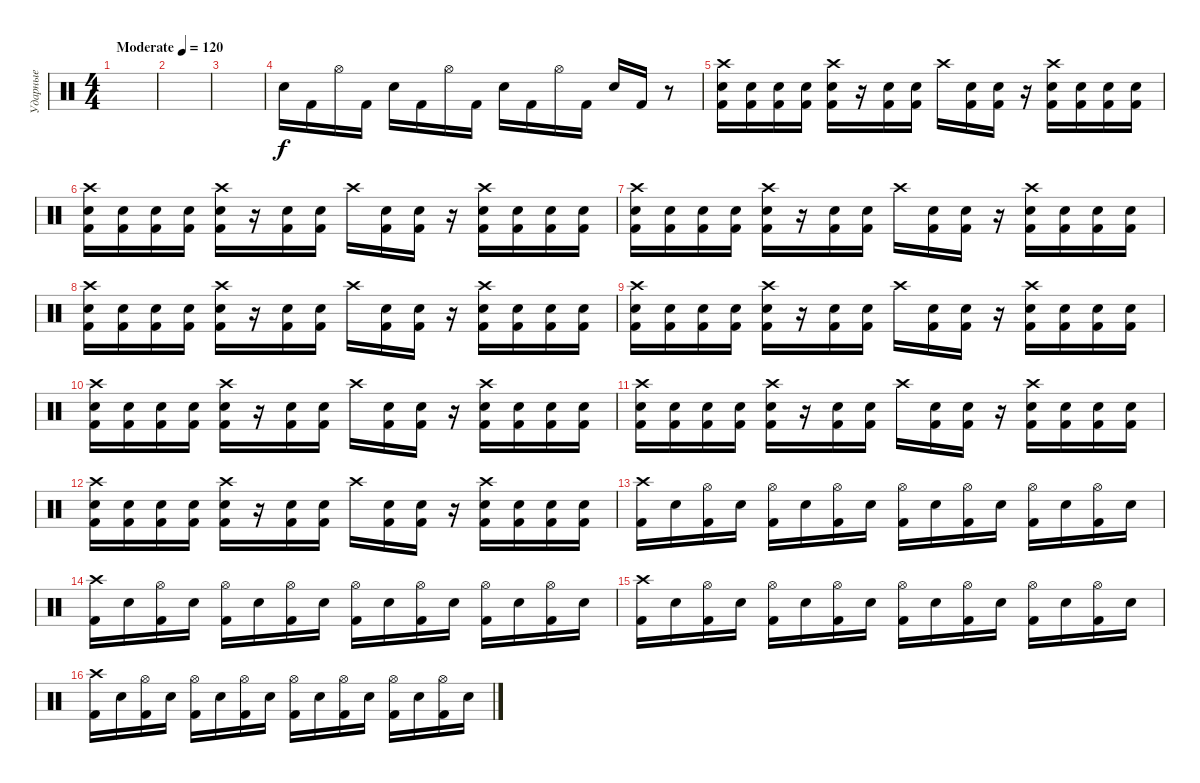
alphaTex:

\track ("Ударные" "Ударные") {instrument percussion}
\staff {score}
\articulation defaults
\ts (4 4)
\tempo (120 "Moderate")
\clef neutral
\ks c
|
|
|
"Snare (hit) 2".16 "Kick (hit) 2".16 "Hi-Hat (open)".16 "Kick (hit) 2".16 "Snare (hit) 2".16 "Kick (hit) 2".16 "Hi-Hat (open)".16 "Kick (hit) 2".16 "Snare (hit) 2".16 "Kick (hit) 2".16 "Hi-Hat (open)".16 "Kick (hit) 2".16 "Snare (hit) 2".16 "Kick (hit) 2".16 r.8 |
("Electric Snare (hit)" "Kick (hit) 2" "Crash high (hit)").16 ("Electric Snare (hit)" "Kick (hit) 2").16 ("Electric Snare (hit)" "Kick (hit) 2").16 ("Electric Snare (hit)" "Kick (hit) 2").16 ("Electric Snare (hit)" "Kick (hit) 2" "Crash high (hit)").16 r.16 ("Electric Snare (hit)" "Kick (hit) 2").16 ("Electric Snare (hit)" "Kick (hit) 2").16 "Crash high (hit)".16 ("Electric Snare (hit)" "Kick (hit) 2").16 ("Electric Snare (hit)" "Kick (hit) 2").16 r.16 ("Electric Snare (hit)" "Kick (hit) 2" "Crash high (hit)").16 ("Electric Snare (hit)" "Kick (hit) 2").16 ("Electric Snare (hit)" "Kick (hit) 2").16 ("Electric Snare (hit)" "Kick (hit) 2").16 |
("Electric Snare (hit)" "Kick (hit) 2" "Crash high (hit)").16 ("Electric Snare (hit)" "Kick (hit) 2").16 ("Electric Snare (hit)" "Kick (hit) 2").16 ("Electric Snare (hit)" "Kick (hit) 2").16 ("Electric Snare (hit)" "Kick (hit) 2" "Crash high (hit)").16 r.16 ("Electric Snare (hit)" "Kick (hit) 2").16 ("Electric Snare (hit)" "Kick (hit) 2").16 "Crash high (hit)".16 ("Electric Snare (hit)" "Kick (hit) 2").16 ("Electric Snare (hit)" "Kick (hit) 2").16 r.16 ("Electric Snare (hit)" "Kick (hit) 2" "Crash high (hit)").16 ("Electric Snare (hit)" "Kick (hit) 2").16 ("Electric Snare (hit)" "Kick (hit) 2").16 ("Electric Snare (hit)" "Kick (hit) 2").16 |
("Electric Snare (hit)" "Kick (hit) 2" "Crash high (hit)").16 ("Electric Snare (hit)" "Kick (hit) 2").16 ("Electric Snare (hit)" "Kick (hit) 2").16 ("Electric Snare (hit)" "Kick (hit) 2").16 ("Electric Snare (hit)" "Kick (hit) 2" "Crash high (hit)").16 r.16 ("Electric Snare (hit)" "Kick (hit) 2").16 ("Electric Snare (hit)" "Kick (hit) 2").16 "Crash high (hit)".16 ("Electric Snare (hit)" "Kick (hit) 2").16 ("Electric Snare (hit)" "Kick (hit) 2").16 r.16 ("Electric Snare (hit)" "Kick (hit) 2" "Crash high (hit)").16 ("Electric Snare (hit)" "Kick (hit) 2").16 ("Electric Snare (hit)" "Kick (hit) 2").16 ("Electric Snare (hit)" "Kick (hit) 2").16 |
("Electric Snare (hit)" "Kick (hit) 2" "Crash high (hit)").16 ("Electric Snare (hit)" "Kick (hit) 2").16 ("Electric Snare (hit)" "Kick (hit) 2").16 ("Electric Snare (hit)" "Kick (hit) 2").16 ("Electric Snare (hit)" "Kick (hit) 2" "Crash high (hit)").16 r.16 ("Electric Snare (hit)" "Kick (hit) 2").16 ("Electric Snare (hit)" "Kick (hit) 2").16 "Crash high (hit)".16 ("Electric Snare (hit)" "Kick (hit) 2").16 ("Electric Snare (hit)" "Kick (hit) 2").16 r.16 ("Electric Snare (hit)" "Kick (hit) 2" "Crash high (hit)").16 ("Electric Snare (hit)" "Kick (hit) 2").16 ("Electric Snare (hit)" "Kick (hit) 2").16 ("Electric Snare (hit)" "Kick (hit) 2").16 |
("Electric Snare (hit)" "Kick (hit) 2" "Crash high (hit)").16 ("Electric Snare (hit)" "Kick (hit) 2").16 ("Electric Snare (hit)" "Kick (hit) 2").16 ("Electric Snare (hit)" "Kick (hit) 2").16 ("Electric Snare (hit)" "Kick (hit) 2" "Crash high (hit)").16 r.16 ("Electric Snare (hit)" "Kick (hit) 2").16 ("Electric Snare (hit)" "Kick (hit) 2").16 "Crash high (hit)".16 ("Electric Snare (hit)" "Kick (hit) 2").16 ("Electric Snare (hit)" "Kick (hit) 2").16 r.16 ("Electric Snare (hit)" "Kick (hit) 2" "Crash high (hit)").16 ("Electric Snare (hit)" "Kick (hit) 2").16 ("Electric Snare (hit)" "Kick (hit) 2").16 ("Electric Snare (hit)" "Kick (hit) 2").16 |
("Electric Snare (hit)" "Kick (hit) 2" "Crash high (hit)").16 ("Electric Snare (hit)" "Kick (hit) 2").16 ("Electric Snare (hit)" "Kick (hit) 2").16 ("Electric Snare (hit)" "Kick (hit) 2").16 ("Electric Snare (hit)" "Kick (hit) 2" "Crash high (hit)").16 r.16 ("Electric Snare (hit)" "Kick (hit) 2").16 ("Electric Snare (hit)" "Kick (hit) 2").16 "Crash high (hit)".16 ("Electric Snare (hit)" "Kick (hit) 2").16 ("Electric Snare (hit)" "Kick (hit) 2").16 r.16 ("Electric Snare (hit)" "Kick (hit) 2" "Crash high (hit)").16 ("Electric Snare (hit)" "Kick (hit) 2").16 ("Electric Snare (hit)" "Kick (hit) 2").16 ("Electric Snare (hit)" "Kick (hit) 2").16 |
("Electric Snare (hit)" "Kick (hit) 2" "Crash high (hit)").16 ("Electric Snare (hit)" "Kick (hit) 2").16 ("Electric Snare (hit)" "Kick (hit) 2").16 ("Electric Snare (hit)" "Kick (hit) 2").16 ("Electric Snare (hit)" "Kick (hit) 2" "Crash high (hit)").16 r.16 ("Electric Snare (hit)" "Kick (hit) 2").16 ("Electric Snare (hit)" "Kick (hit) 2").16 "Crash high (hit)".16 ("Electric Snare (hit)" "Kick (hit) 2").16 ("Electric Snare (hit)" "Kick (hit) 2").16 r.16 ("Electric Snare (hit)" "Kick (hit) 2" "Crash high (hit)").16 ("Electric Snare (hit)" "Kick (hit) 2").16 ("Electric Snare (hit)" "Kick (hit) 2").16 ("Electric Snare (hit)" "Kick (hit) 2").16 |
("Electric Snare (hit)" "Kick (hit) 2" "Crash high (hit)").16 ("Electric Snare (hit)" "Kick (hit) 2").16 ("Electric Snare (hit)" "Kick (hit) 2").16 ("Electric Snare (hit)" "Kick (hit) 2").16 ("Electric Snare (hit)" "Kick (hit) 2" "Crash high (hit)").16 r.16 ("Electric Snare (hit)" "Kick (hit) 2").16 ("Electric Snare (hit)" "Kick (hit) 2").16 "Crash high (hit)".16 ("Electric Snare (hit)" "Kick (hit) 2").16 ("Electric Snare (hit)" "Kick (hit) 2").16 r.16 ("Electric Snare (hit)" "Kick (hit) 2" "Crash high (hit)").16 ("Electric Snare (hit)" "Kick (hit) 2").16 ("Electric Snare (hit)" "Kick (hit) 2").16 ("Electric Snare (hit)" "Kick (hit) 2").16 |
("Kick (hit) 2" "Crash high (hit)").16 "Electric Snare (hit)".16 ("Kick (hit) 2" "Hi-Hat (open)").16 "Electric Snare (hit)".16 ("Kick (hit) 2" "Hi-Hat (open)").16 "Electric Snare (hit)".16 ("Kick (hit) 2" "Hi-Hat (open)").16 "Electric Snare (hit)".16 ("Kick (hit) 2" "Hi-Hat (open)").16 "Electric Snare (hit)".16 ("Kick (hit) 2" "Hi-Hat (open)").16 "Electric Snare (hit)".16 ("Kick (hit) 2" "Hi-Hat (open)").16 "Electric Snare (hit)".16 ("Kick (hit) 2" "Hi-Hat (open)").16 "Electric Snare (hit)".16 |
("Kick (hit) 2" "Crash high (hit)").16 "Electric Snare (hit)".16 ("Kick (hit) 2" "Hi-Hat (open)").16 "Electric Snare (hit)".16 ("Kick (hit) 2" "Hi-Hat (open)").16 "Electric Snare (hit)".16 ("Kick (hit) 2" "Hi-Hat (open)").16 "Electric Snare (hit)".16 ("Kick (hit) 2" "Hi-Hat (open)").16 "Electric Snare (hit)".16 ("Kick (hit) 2" "Hi-Hat (open)").16 "Electric Snare (hit)".16 ("Kick (hit) 2" "Hi-Hat (open)").16 "Electric Snare (hit)".16 ("Kick (hit) 2" "Hi-Hat (open)").16 "Electric Snare (hit)".16 |
("Kick (hit) 2" "Crash high (hit)").16 "Electric Snare (hit)".16 ("Kick (hit) 2" "Hi-Hat (open)").16 "Electric Snare (hit)".16 ("Kick (hit) 2" "Hi-Hat (open)").16 "Electric Snare (hit)".16 ("Kick (hit) 2" "Hi-Hat (open)").16 "Electric Snare (hit)".16 ("Kick (hit) 2" "Hi-Hat (open)").16 "Electric Snare (hit)".16 ("Kick (hit) 2" "Hi-Hat (open)").16 "Electric Snare (hit)".16 ("Kick (hit) 2" "Hi-Hat (open)").16 "Electric Snare (hit)".16 ("Kick (hit) 2" "Hi-Hat (open)").16 "Electric Snare (hit)".16 |
("Kick (hit) 2" "Crash high (hit)").16 "Electric Snare (hit)".16 ("Kick (hit) 2" "Hi-Hat (open)").16 "Electric Snare (hit)".16 ("Kick (hit) 2" "Hi-Hat (open)").16 "Electric Snare (hit)".16 ("Kick (hit) 2" "Hi-Hat (open)").16 "Electric Snare (hit)".16 ("Kick (hit) 2" "Hi-Hat (open)").16 "Electric Snare (hit)".16 ("Kick (hit) 2" "Hi-Hat (open)").16 "Electric Snare (hit)".16 ("Kick (hit) 2" "Hi-Hat (open)").16 "Electric Snare (hit)".16 ("Kick (hit) 2" "Hi-Hat (open)").16 "Electric Snare (hit)".16
